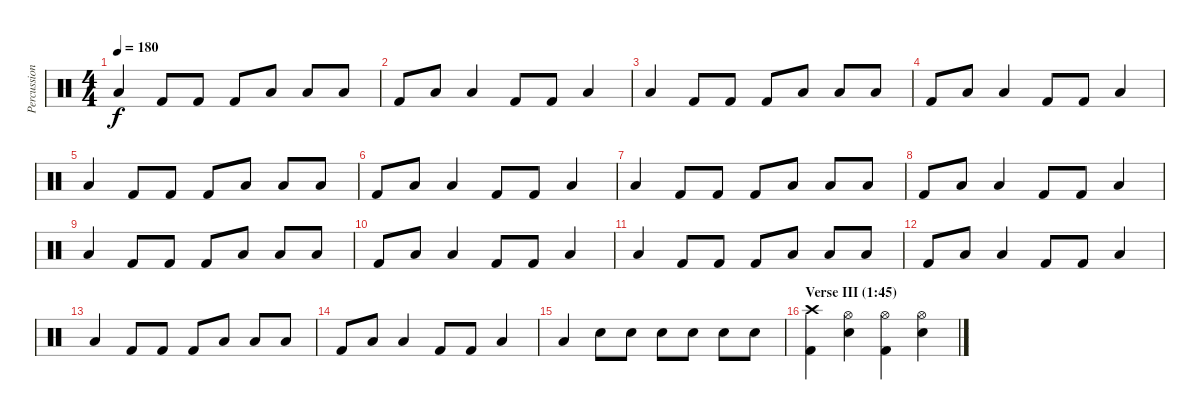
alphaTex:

\track ("Percussion" "Percussion") {instrument percussion}
\staff {score}
\articulation defaults
\ts (4 4)
\tempo 180
\clef neutral
\ks c "Low Tom (hit)".4{dy f} "Kick (hit) 2".8 "Kick (hit) 2".8 "Kick (hit) 2".8 "Low Tom (hit)".8 "Low Tom (hit)".8 "Low Tom (hit)".8
|
"Kick (hit) 2".8 "Low Tom (hit)".8 "Low Tom (hit)".4 "Kick (hit) 2".8 "Kick (hit) 2".8 "Low Tom (hit)".4 |
"Low Tom (hit)".4 "Kick (hit) 2".8 "Kick (hit) 2".8 "Kick (hit) 2".8 "Low Tom (hit)".8 "Low Tom (hit)".8 "Low Tom (hit)".8 |
"Kick (hit) 2".8 "Low Tom (hit)".8 "Low Tom (hit)".4 "Kick (hit) 2".8 "Kick (hit) 2".8 "Low Tom (hit)".4 |
"Low Tom (hit)".4 "Kick (hit) 2".8 "Kick (hit) 2".8 "Kick (hit) 2".8 "Low Tom (hit)".8 "Low Tom (hit)".8 "Low Tom (hit)".8 |
"Kick (hit) 2".8 "Low Tom (hit)".8 "Low Tom (hit)".4 "Kick (hit) 2".8 "Kick (hit) 2".8 "Low Tom (hit)".4 |
"Low Tom (hit)".4 "Kick (hit) 2".8 "Kick (hit) 2".8 "Kick (hit) 2".8 "Low Tom (hit)".8 "Low Tom (hit)".8 "Low Tom (hit)".8 |
"Kick (hit) 2".8 "Low Tom (hit)".8 "Low Tom (hit)".4 "Kick (hit) 2".8 "Kick (hit) 2".8 "Low Tom (hit)".4 |
"Low Tom (hit)".4 "Kick (hit) 2".8 "Kick (hit) 2".8 "Kick (hit) 2".8 "Low Tom (hit)".8 "Low Tom (hit)".8 "Low Tom (hit)".8 |
"Kick (hit) 2".8 "Low Tom (hit)".8 "Low Tom (hit)".4 "Kick (hit) 2".8 "Kick (hit) 2".8 "Low Tom (hit)".4 |
"Low Tom (hit)".4 "Kick (hit) 2".8 "Kick (hit) 2".8 "Kick (hit) 2".8 "Low Tom (hit)".8 "Low Tom (hit)".8 "Low Tom (hit)".8 |
"Kick (hit) 2".8 "Low Tom (hit)".8 "Low Tom (hit)".4 "Kick (hit) 2".8 "Kick (hit) 2".8 "Low Tom (hit)".4 |
"Low Tom (hit)".4 "Kick (hit) 2".8 "Kick (hit) 2".8 "Kick (hit) 2".8 "Low Tom (hit)".8 "Low Tom (hit)".8 "Low Tom (hit)".8 |
"Kick (hit) 2".8 "Low Tom (hit)".8 "Low Tom (hit)".4 "Kick (hit) 2".8 "Kick (hit) 2".8 "Low Tom (hit)".4 |
"Low Tom (hit)".4 "Electric Snare (hit)".8 "Electric Snare (hit)".8 "Electric Snare (hit)".8 "Electric Snare (hit)".8 "Electric Snare (hit)".8 "Electric Snare (hit)".8 |
\section ("" "Verse III (1:45)")
("Crash high (hit)" "Kick (hit) 2").4 ("Hi-Hat (open)" "Electric Snare (hit)").4 ("Hi-Hat (open)" "Kick (hit) 2").4 ("Hi-Hat (open)" "Electric Snare (hit)").4
